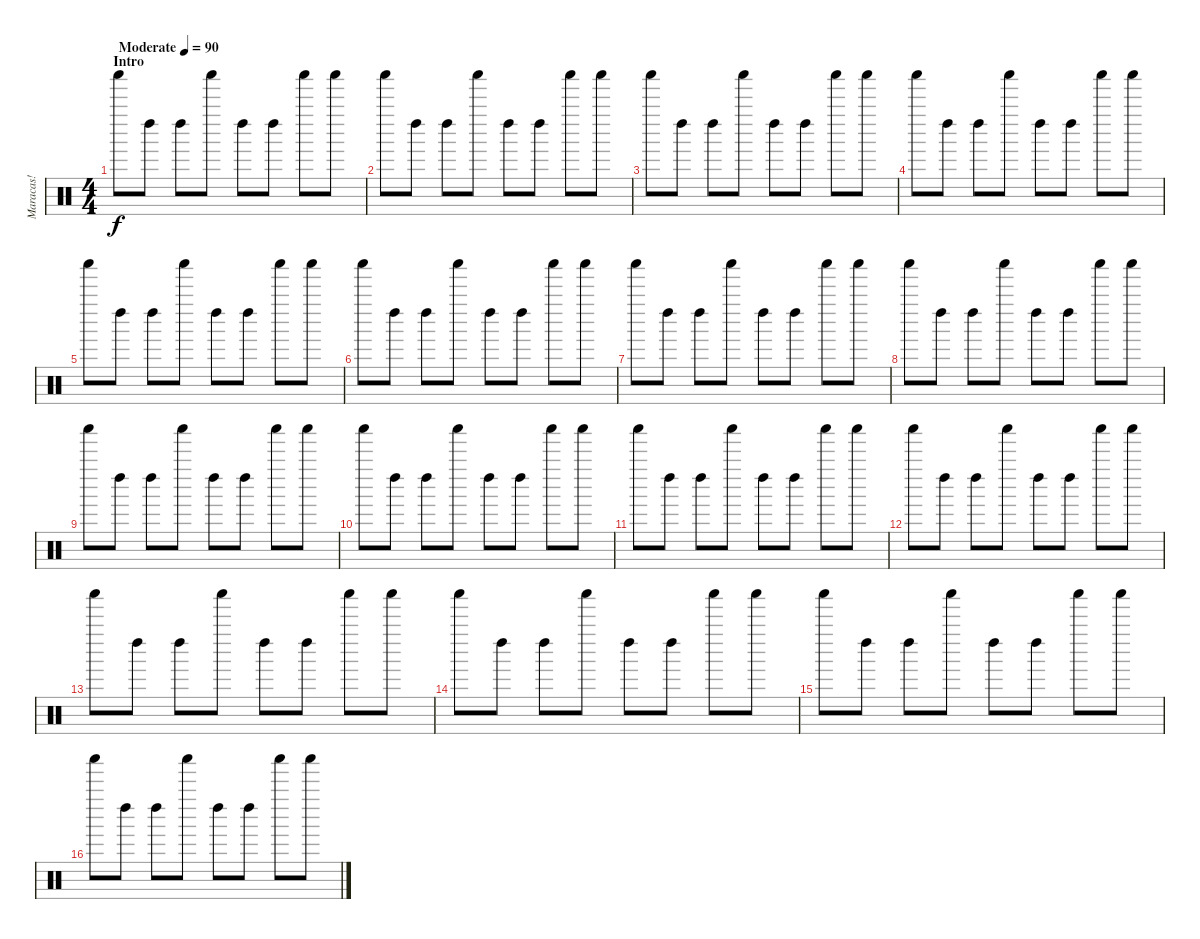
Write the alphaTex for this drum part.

\track ("Maracas!" "Maracas!") {instrument percussion}
\staff {score}
\articulation defaults
\ts (4 4)
\section ("" "Intro")
\tempo (90 "Moderate")
\clef neutral
\ks c "Shaker (hit)".8{dy f} "Left Maraca (hit)".8 "Left Maraca (hit)".8 "Shaker (hit)".8 "Left Maraca (hit)".8 "Left Maraca (hit)".8 "Shaker (hit)".8 "Shaker (hit)".8
|
"Shaker (hit)".8 "Left Maraca (hit)".8 "Left Maraca (hit)".8 "Shaker (hit)".8 "Left Maraca (hit)".8 "Left Maraca (hit)".8 "Shaker (hit)".8 "Shaker (hit)".8 |
"Shaker (hit)".8 "Left Maraca (hit)".8 "Left Maraca (hit)".8 "Shaker (hit)".8 "Left Maraca (hit)".8 "Left Maraca (hit)".8 "Shaker (hit)".8 "Shaker (hit)".8 |
"Shaker (hit)".8 "Left Maraca (hit)".8 "Left Maraca (hit)".8 "Shaker (hit)".8 "Left Maraca (hit)".8 "Left Maraca (hit)".8 "Shaker (hit)".8 "Shaker (hit)".8 |
"Shaker (hit)".8 "Left Maraca (hit)".8 "Left Maraca (hit)".8 "Shaker (hit)".8 "Left Maraca (hit)".8 "Left Maraca (hit)".8 "Shaker (hit)".8 "Shaker (hit)".8 |
"Shaker (hit)".8 "Left Maraca (hit)".8 "Left Maraca (hit)".8 "Shaker (hit)".8 "Left Maraca (hit)".8 "Left Maraca (hit)".8 "Shaker (hit)".8 "Shaker (hit)".8 |
"Shaker (hit)".8 "Left Maraca (hit)".8 "Left Maraca (hit)".8 "Shaker (hit)".8 "Left Maraca (hit)".8 "Left Maraca (hit)".8 "Shaker (hit)".8 "Shaker (hit)".8 |
"Shaker (hit)".8 "Left Maraca (hit)".8 "Left Maraca (hit)".8 "Shaker (hit)".8 "Left Maraca (hit)".8 "Left Maraca (hit)".8 "Shaker (hit)".8 "Shaker (hit)".8 |
"Shaker (hit)".8 "Left Maraca (hit)".8 "Left Maraca (hit)".8 "Shaker (hit)".8 "Left Maraca (hit)".8 "Left Maraca (hit)".8 "Shaker (hit)".8 "Shaker (hit)".8 |
"Shaker (hit)".8 "Left Maraca (hit)".8 "Left Maraca (hit)".8 "Shaker (hit)".8 "Left Maraca (hit)".8 "Left Maraca (hit)".8 "Shaker (hit)".8 "Shaker (hit)".8 |
"Shaker (hit)".8 "Left Maraca (hit)".8 "Left Maraca (hit)".8 "Shaker (hit)".8 "Left Maraca (hit)".8 "Left Maraca (hit)".8 "Shaker (hit)".8 "Shaker (hit)".8 |
"Shaker (hit)".8 "Left Maraca (hit)".8 "Left Maraca (hit)".8 "Shaker (hit)".8 "Left Maraca (hit)".8 "Left Maraca (hit)".8 "Shaker (hit)".8 "Shaker (hit)".8 |
"Shaker (hit)".8 "Left Maraca (hit)".8 "Left Maraca (hit)".8 "Shaker (hit)".8 "Left Maraca (hit)".8 "Left Maraca (hit)".8 "Shaker (hit)".8 "Shaker (hit)".8 |
"Shaker (hit)".8 "Left Maraca (hit)".8 "Left Maraca (hit)".8 "Shaker (hit)".8 "Left Maraca (hit)".8 "Left Maraca (hit)".8 "Shaker (hit)".8 "Shaker (hit)".8 |
"Shaker (hit)".8 "Left Maraca (hit)".8 "Left Maraca (hit)".8 "Shaker (hit)".8 "Left Maraca (hit)".8 "Left Maraca (hit)".8 "Shaker (hit)".8 "Shaker (hit)".8 |
"Shaker (hit)".8 "Left Maraca (hit)".8 "Left Maraca (hit)".8 "Shaker (hit)".8 "Left Maraca (hit)".8 "Left Maraca (hit)".8 "Shaker (hit)".8 "Shaker (hit)".8
